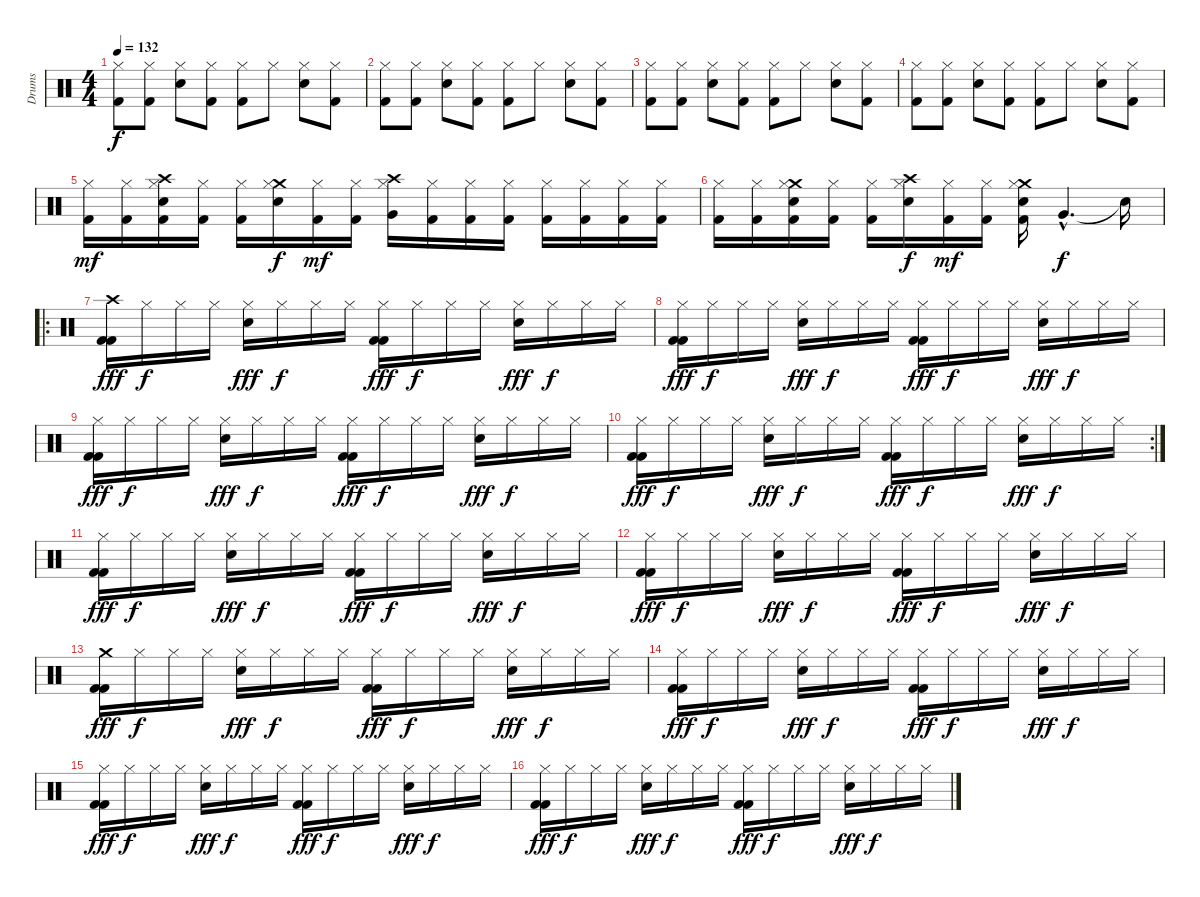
\track ("Drums" "Drums") {instrument percussion}
\staff {score}
\articulation defaults
\ts (4 4)
\tempo 132
\clef neutral
\ks c
("Kick (hit) 2" "Hi-Hat (closed)").8{dy f} ("Kick (hit) 2" "Hi-Hat (closed)").8 ("Hi-Hat (closed)" "Snare (hit) 2").8 ("Kick (hit) 2" "Hi-Hat (closed)").8 ("Kick (hit) 2" "Hi-Hat (closed)").8 "Hi-Hat (closed)".8 ("Hi-Hat (closed)" "Snare (hit) 2").8 ("Kick (hit) 2" "Hi-Hat (closed)").8 |
("Kick (hit) 2" "Hi-Hat (closed)").8 ("Kick (hit) 2" "Hi-Hat (closed)").8 ("Hi-Hat (closed)" "Snare (hit) 2").8 ("Kick (hit) 2" "Hi-Hat (closed)").8 ("Kick (hit) 2" "Hi-Hat (closed)").8 "Hi-Hat (closed)".8 ("Hi-Hat (closed)" "Snare (hit) 2").8 ("Kick (hit) 2" "Hi-Hat (closed)").8 |
("Kick (hit) 2" "Hi-Hat (closed)").8 ("Kick (hit) 2" "Hi-Hat (closed)").8 ("Hi-Hat (closed)" "Snare (hit) 2").8 ("Kick (hit) 2" "Hi-Hat (closed)").8 ("Kick (hit) 2" "Hi-Hat (closed)").8 "Hi-Hat (closed)".8 ("Hi-Hat (closed)" "Snare (hit) 2").8 ("Kick (hit) 2" "Hi-Hat (closed)").8 |
("Kick (hit) 2" "Hi-Hat (closed)").8 ("Kick (hit) 2" "Hi-Hat (closed)").8 ("Hi-Hat (closed)" "Snare (hit) 2").8 ("Kick (hit) 2" "Hi-Hat (closed)").8 ("Kick (hit) 2" "Hi-Hat (closed)").8 "Hi-Hat (closed)".8 ("Hi-Hat (closed)" "Snare (hit) 2").8 ("Kick (hit) 2" "Hi-Hat (closed)").8 |
("Kick (hit) 2" "Hi-Hat (closed)").16{dy mf} ("Kick (hit) 2" "Hi-Hat (closed)").16 ("Kick (hit) 2" "Crash high (hit)" "Hi-Hat (closed)" "Snare (hit) 2").16 ("Kick (hit) 2" "Hi-Hat (closed)").16 ("Kick (hit) 2" "Hi-Hat (closed)").16 ("Crash medium (hit)" "Hi-Hat (closed)" "Snare (hit) 2").16{dy f} ("Kick (hit) 2" "Hi-Hat (closed)").16{dy mf} ("Kick (hit) 2" "Hi-Hat (closed)").16 ("Crash high (hit)" "Very Low Tom (hit)" "Hi-Hat (closed)").16 ("Kick (hit) 2" "Hi-Hat (closed)").16 ("Kick (hit) 2" "Hi-Hat (closed)").16 ("Kick (hit) 2" "Hi-Hat (closed)").16 ("Kick (hit) 2" "Hi-Hat (closed)").16 ("Kick (hit) 2" "Hi-Hat (closed)").16 ("Kick (hit) 2" "Hi-Hat (closed)").16 ("Kick (hit) 2" "Hi-Hat (closed)").16 |
("Kick (hit) 2" "Hi-Hat (closed)").16 ("Kick (hit) 2" "Hi-Hat (closed)").16 ("Kick (hit) 2" "Crash medium (hit)" "Hi-Hat (closed)" "Snare (hit) 2").16 ("Kick (hit) 2" "Hi-Hat (closed)").16 ("Kick (hit) 2" "Hi-Hat (closed)").16 ("Crash high (hit)" "Hi-Hat (closed)" "Snare (hit) 2").16{dy f} ("Kick (hit) 2" "Hi-Hat (closed)").16{dy mf} ("Kick (hit) 2" "Hi-Hat (closed)").16 ("Kick (hit) 2" "Crash medium (hit)" "Hi-Hat (closed)" "Snare (hit) 2").16 "Very Low Tom (hit)"{hac}.4{d dy f} "Snare (hit)"{t}.16 |
\ro
("Kick (hit) 2" "Kick (hit) 2" "Crash high (hit)").16{dy fff} "Hi-Hat (closed)".16{dy f} "Hi-Hat (closed)".16 "Hi-Hat (closed)".16 ("Hi-Hat (closed)" "Snare (hit) 2").16{dy fff} "Hi-Hat (closed)".16{dy f} "Hi-Hat (closed)".16 "Hi-Hat (closed)".16 ("Kick (hit) 2" "Kick (hit) 2" "Hi-Hat (closed)").16{dy fff} "Hi-Hat (closed)".16{dy f} "Hi-Hat (closed)".16 "Hi-Hat (closed)".16 ("Hi-Hat (closed)" "Snare (hit) 2").16{dy fff} "Hi-Hat (closed)".16{dy f} "Hi-Hat (closed)".16 "Hi-Hat (closed)".16 |
("Kick (hit) 2" "Kick (hit) 2" "Hi-Hat (closed)").16{dy fff} "Hi-Hat (closed)".16{dy f} "Hi-Hat (closed)".16 "Hi-Hat (closed)".16 ("Hi-Hat (closed)" "Snare (hit) 2").16{dy fff} "Hi-Hat (closed)".16{dy f} "Hi-Hat (closed)".16 "Hi-Hat (closed)".16 ("Kick (hit) 2" "Kick (hit) 2" "Hi-Hat (closed)").16{dy fff} "Hi-Hat (closed)".16{dy f} "Hi-Hat (closed)".16 "Hi-Hat (closed)".16 ("Hi-Hat (closed)" "Snare (hit) 2").16{dy fff} "Hi-Hat (closed)".16{dy f} "Hi-Hat (closed)".16 "Hi-Hat (closed)".16 |
("Kick (hit) 2" "Kick (hit) 2" "Hi-Hat (closed)").16{dy fff} "Hi-Hat (closed)".16{dy f} "Hi-Hat (closed)".16 "Hi-Hat (closed)".16 ("Hi-Hat (closed)" "Snare (hit) 2").16{dy fff} "Hi-Hat (closed)".16{dy f} "Hi-Hat (closed)".16 "Hi-Hat (closed)".16 ("Kick (hit) 2" "Kick (hit) 2" "Hi-Hat (closed)").16{dy fff} "Hi-Hat (closed)".16{dy f} "Hi-Hat (closed)".16 "Hi-Hat (closed)".16 ("Hi-Hat (closed)" "Snare (hit) 2").16{dy fff} "Hi-Hat (closed)".16{dy f} "Hi-Hat (closed)".16 "Hi-Hat (closed)".16 |
\rc 2
("Kick (hit) 2" "Kick (hit) 2" "Hi-Hat (closed)").16{dy fff} "Hi-Hat (closed)".16{dy f} "Hi-Hat (closed)".16 "Hi-Hat (closed)".16 ("Hi-Hat (closed)" "Snare (hit) 2").16{dy fff} "Hi-Hat (closed)".16{dy f} "Hi-Hat (closed)".16 "Hi-Hat (closed)".16 ("Kick (hit) 2" "Kick (hit) 2" "Hi-Hat (closed)").16{dy fff} "Hi-Hat (closed)".16{dy f} "Hi-Hat (closed)".16 "Hi-Hat (closed)".16 ("Hi-Hat (closed)" "Snare (hit) 2").16{dy fff} "Hi-Hat (closed)".16{dy f} "Hi-Hat (closed)".16 "Hi-Hat (closed)".16 |
("Kick (hit) 2" "Kick (hit) 2" "Hi-Hat (closed)").16{dy fff} "Hi-Hat (closed)".16{dy f} "Hi-Hat (closed)".16 "Hi-Hat (closed)".16 ("Hi-Hat (closed)" "Snare (hit) 2").16{dy fff} "Hi-Hat (closed)".16{dy f} "Hi-Hat (closed)".16 "Hi-Hat (closed)".16 ("Kick (hit) 2" "Kick (hit) 2" "Hi-Hat (closed)").16{dy fff} "Hi-Hat (closed)".16{dy f} "Hi-Hat (closed)".16 "Hi-Hat (closed)".16 ("Hi-Hat (closed)" "Snare (hit) 2").16{dy fff} "Hi-Hat (closed)".16{dy f} "Hi-Hat (closed)".16 "Hi-Hat (closed)".16 |
("Kick (hit) 2" "Kick (hit) 2" "Hi-Hat (closed)").16{dy fff} "Hi-Hat (closed)".16{dy f} "Hi-Hat (closed)".16 "Hi-Hat (closed)".16 ("Hi-Hat (closed)" "Snare (hit) 2").16{dy fff} "Hi-Hat (closed)".16{dy f} "Hi-Hat (closed)".16 "Hi-Hat (closed)".16 ("Kick (hit) 2" "Kick (hit) 2" "Hi-Hat (closed)").16{dy fff} "Hi-Hat (closed)".16{dy f} "Hi-Hat (closed)".16 "Hi-Hat (closed)".16 ("Hi-Hat (closed)" "Snare (hit) 2").16{dy fff} "Hi-Hat (closed)".16{dy f} "Hi-Hat (closed)".16 "Hi-Hat (closed)".16 |
("Kick (hit) 2" "Kick (hit) 2" "Crash medium (hit)").16{dy fff} "Hi-Hat (closed)".16{dy f} "Hi-Hat (closed)".16 "Hi-Hat (closed)".16 ("Hi-Hat (closed)" "Snare (hit) 2").16{dy fff} "Hi-Hat (closed)".16{dy f} "Hi-Hat (closed)".16 "Hi-Hat (closed)".16 ("Kick (hit) 2" "Kick (hit) 2" "Hi-Hat (closed)").16{dy fff} "Hi-Hat (closed)".16{dy f} "Hi-Hat (closed)".16 "Hi-Hat (closed)".16 ("Hi-Hat (closed)" "Snare (hit) 2").16{dy fff} "Hi-Hat (closed)".16{dy f} "Hi-Hat (closed)".16 "Hi-Hat (closed)".16 |
("Kick (hit) 2" "Kick (hit) 2" "Hi-Hat (closed)").16{dy fff} "Hi-Hat (closed)".16{dy f} "Hi-Hat (closed)".16 "Hi-Hat (closed)".16 ("Hi-Hat (closed)" "Snare (hit) 2").16{dy fff} "Hi-Hat (closed)".16{dy f} "Hi-Hat (closed)".16 "Hi-Hat (closed)".16 ("Kick (hit) 2" "Kick (hit) 2" "Hi-Hat (closed)").16{dy fff} "Hi-Hat (closed)".16{dy f} "Hi-Hat (closed)".16 "Hi-Hat (closed)".16 ("Hi-Hat (closed)" "Snare (hit) 2").16{dy fff} "Hi-Hat (closed)".16{dy f} "Hi-Hat (closed)".16 "Hi-Hat (closed)".16 |
("Kick (hit) 2" "Kick (hit) 2" "Hi-Hat (closed)").16{dy fff} "Hi-Hat (closed)".16{dy f} "Hi-Hat (closed)".16 "Hi-Hat (closed)".16 ("Hi-Hat (closed)" "Snare (hit) 2").16{dy fff} "Hi-Hat (closed)".16{dy f} "Hi-Hat (closed)".16 "Hi-Hat (closed)".16 ("Kick (hit) 2" "Kick (hit) 2" "Hi-Hat (closed)").16{dy fff} "Hi-Hat (closed)".16{dy f} "Hi-Hat (closed)".16 "Hi-Hat (closed)".16 ("Hi-Hat (closed)" "Snare (hit) 2").16{dy fff} "Hi-Hat (closed)".16{dy f} "Hi-Hat (closed)".16 "Hi-Hat (closed)".16 |
("Kick (hit) 2" "Kick (hit) 2" "Hi-Hat (closed)").16{dy fff} "Hi-Hat (closed)".16{dy f} "Hi-Hat (closed)".16 "Hi-Hat (closed)".16 ("Hi-Hat (closed)" "Snare (hit) 2").16{dy fff} "Hi-Hat (closed)".16{dy f} "Hi-Hat (closed)".16 "Hi-Hat (closed)".16 ("Kick (hit) 2" "Kick (hit) 2" "Hi-Hat (closed)").16{dy fff} "Hi-Hat (closed)".16{dy f} "Hi-Hat (closed)".16 "Hi-Hat (closed)".16 ("Hi-Hat (closed)" "Snare (hit) 2").16{dy fff} "Hi-Hat (closed)".16{dy f} "Hi-Hat (closed)".16 "Hi-Hat (closed)".16
